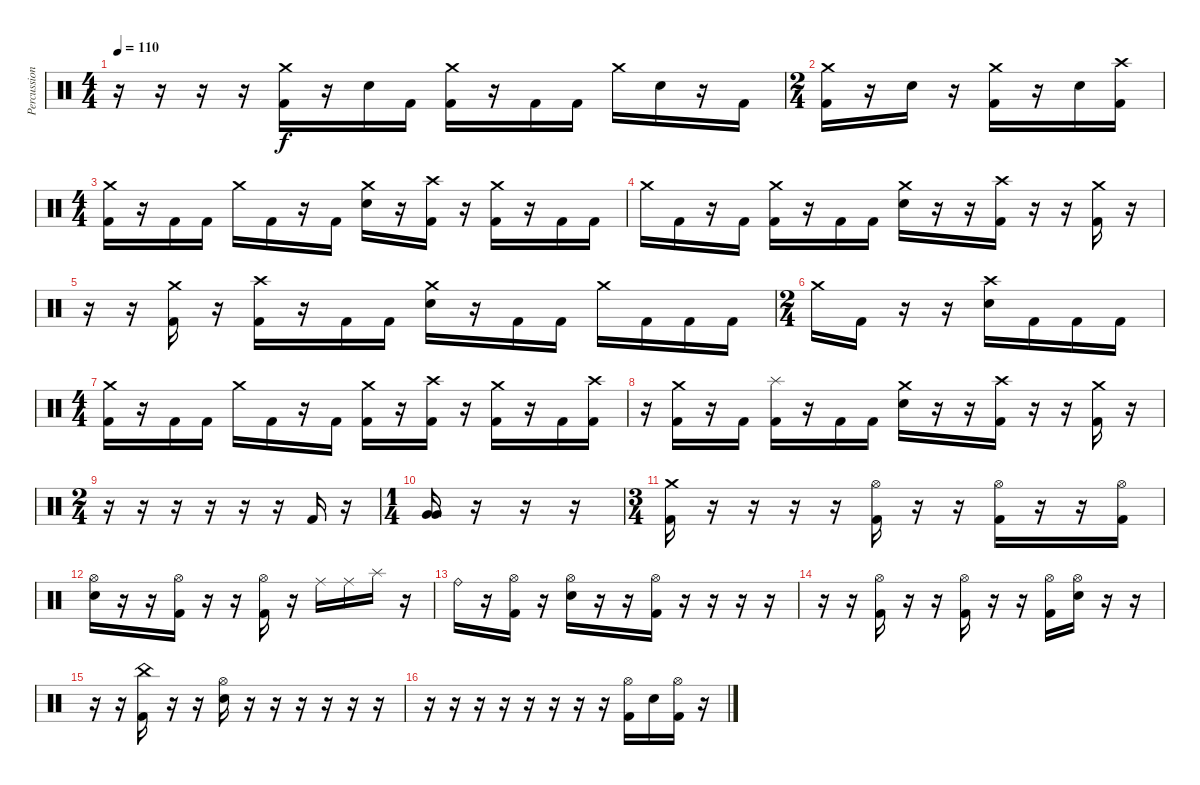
\track ("Percussion" "Percussion") {instrument percussion}
\staff {score}
\articulation defaults
\ts (4 4)
\tempo 110
\clef neutral
\ks c
r.16{dy f} r.16 r.16 r.16 ("Crash medium (hit)" "Kick (hit) 2").16 r.16 "Snare (hit) 2".16 "Kick (hit) 2".16 ("Crash medium (hit)" "Kick (hit) 2").16 r.16 "Kick (hit) 2".16 "Kick (hit) 2".16 "Crash medium (hit)".16 "Snare (hit) 2".16 r.16 "Kick (hit) 2".16 |
\ts (2 4)
("Crash medium (hit)" "Kick (hit) 2").16 r.16 "Snare (hit) 2".16 r.16 ("Crash medium (hit)" "Kick (hit) 2").16 r.16 "Snare (hit) 2".16 ("Crash high (hit)" "Kick (hit) 2").16 |
\ts (4 4)
("Crash medium (hit)" "Kick (hit) 2").16 r.16 "Kick (hit) 2".16 "Kick (hit) 2".16 "Crash medium (hit)".16 "Kick (hit) 2".16 r.16 "Kick (hit) 2".16 ("Crash medium (hit)" "Snare (hit) 2").16 r.16 ("Crash high (hit)" "Kick (hit) 2").16 r.16 ("Crash medium (hit)" "Kick (hit) 2").16 r.16 "Kick (hit) 2".16 "Kick (hit) 2".16 |
"Crash medium (hit)".16 "Kick (hit) 2".16 r.16 "Kick (hit) 2".16 ("Crash medium (hit)" "Kick (hit) 2").16 r.16 "Kick (hit) 2".16 "Kick (hit) 2".16 ("Crash medium (hit)" "Snare (hit) 2").16 r.16 r.16 ("Crash high (hit)" "Kick (hit) 2").16 r.16 r.16 ("Crash medium (hit)" "Kick (hit) 2").16 r.16 |
r.16 r.16 ("Crash medium (hit)" "Kick (hit) 2").16 r.16 ("Crash high (hit)" "Kick (hit) 2").16 r.16 "Kick (hit) 2".16 "Kick (hit) 2".16 ("Crash medium (hit)" "Snare (hit) 2").16 r.16 "Kick (hit) 2".16 "Kick (hit) 2".16 "Crash medium (hit)".16 "Kick (hit) 2".16 "Kick (hit) 2".16 "Kick (hit) 2".16 |
\ts (2 4)
"Crash medium (hit)".16 "Kick (hit) 2".16 r.16 r.16 ("Crash high (hit)" "Snare (hit) 2").16 "Kick (hit) 2".16 "Kick (hit) 2".16 "Kick (hit) 2".16 |
\ts (4 4)
("Crash medium (hit)" "Kick (hit) 2").16 r.16 "Kick (hit) 2".16 "Kick (hit) 2".16 "Crash medium (hit)".16 "Kick (hit) 2".16 r.16 "Kick (hit) 2".16 ("Crash medium (hit)" "Kick (hit) 2").16 r.16 ("Crash high (hit)" "Kick (hit) 2").16 r.16 ("Crash medium (hit)" "Kick (hit) 2").16 r.16 "Kick (hit) 2".16 ("Crash high (hit)" "Kick (hit) 2").16 |
r.16 ("Crash medium (hit)" "Kick (hit) 2").16 r.16 "Kick (hit) 2".16 ("Splash (hit)" "Kick (hit) 2").16 r.16 "Kick (hit) 2".16 "Kick (hit) 2".16 ("Crash medium (hit)" "Snare (hit) 2").16 r.16 r.16 ("Crash high (hit)" "Kick (hit) 2").16 r.16 r.16 ("Crash medium (hit)" "Kick (hit) 2").16 r.16 |
\ts (2 4)
r.16 r.16 r.16 r.16 r.16 r.16 "Kick (hit) 2".16 r.16 |
\ts (1 4)
("Very Low Tom (hit)" "Very Low Tom (hit)").16 r.16 r.16 r.16 |
\ts (3 4)
("Crash medium (hit)" "Kick (hit) 2").16 r.16 r.16 r.16 r.16 ("Hi-Hat (open)" "Kick (hit) 2").16 r.16 r.16 ("Hi-Hat (open)" "Kick (hit) 2").16 r.16 r.16 ("Hi-Hat (open)" "Kick (hit) 2").16 |
("Hi-Hat (open)" "Electric Snare (hit)").16 r.16 r.16 ("Hi-Hat (open)" "Kick (hit) 2").16 r.16 r.16 ("Hi-Hat (open)" "Kick (hit) 2").16 r.16 "Ride (middle)".16 "Ride (middle)".16 "Splash (hit)".16 r.16 |
"Ride (bell)".16 r.16 ("Hi-Hat (open)" "Kick (hit) 2").16 r.16 ("Hi-Hat (open)" "Electric Snare (hit)").16 r.16 r.16 ("Hi-Hat (open)" "Kick (hit) 2").16 r.16 r.16 r.16 r.16 |
r.16 r.16 ("Hi-Hat (open)" "Kick (hit) 2").16 r.16 r.16 ("Hi-Hat (open)" "Kick (hit) 2").16 r.16 r.16 ("Hi-Hat (open)" "Kick (hit) 2").16 ("Hi-Hat (open)" "Electric Snare (hit)").16 r.16 r.16 |
r.16 r.16 ("China (hit)" "Kick (hit) 2").16 r.16 r.16 ("Hi-Hat (open)" "Electric Snare (hit)").16 r.16 r.16 r.16 r.16 r.16 r.16 |
r.16 r.16 r.16 r.16 r.16 r.16 r.16 r.16 ("Hi-Hat (open)" "Kick (hit) 2").16 "Electric Snare (hit)".16 ("Hi-Hat (open)" "Kick (hit) 2").16 r.16
